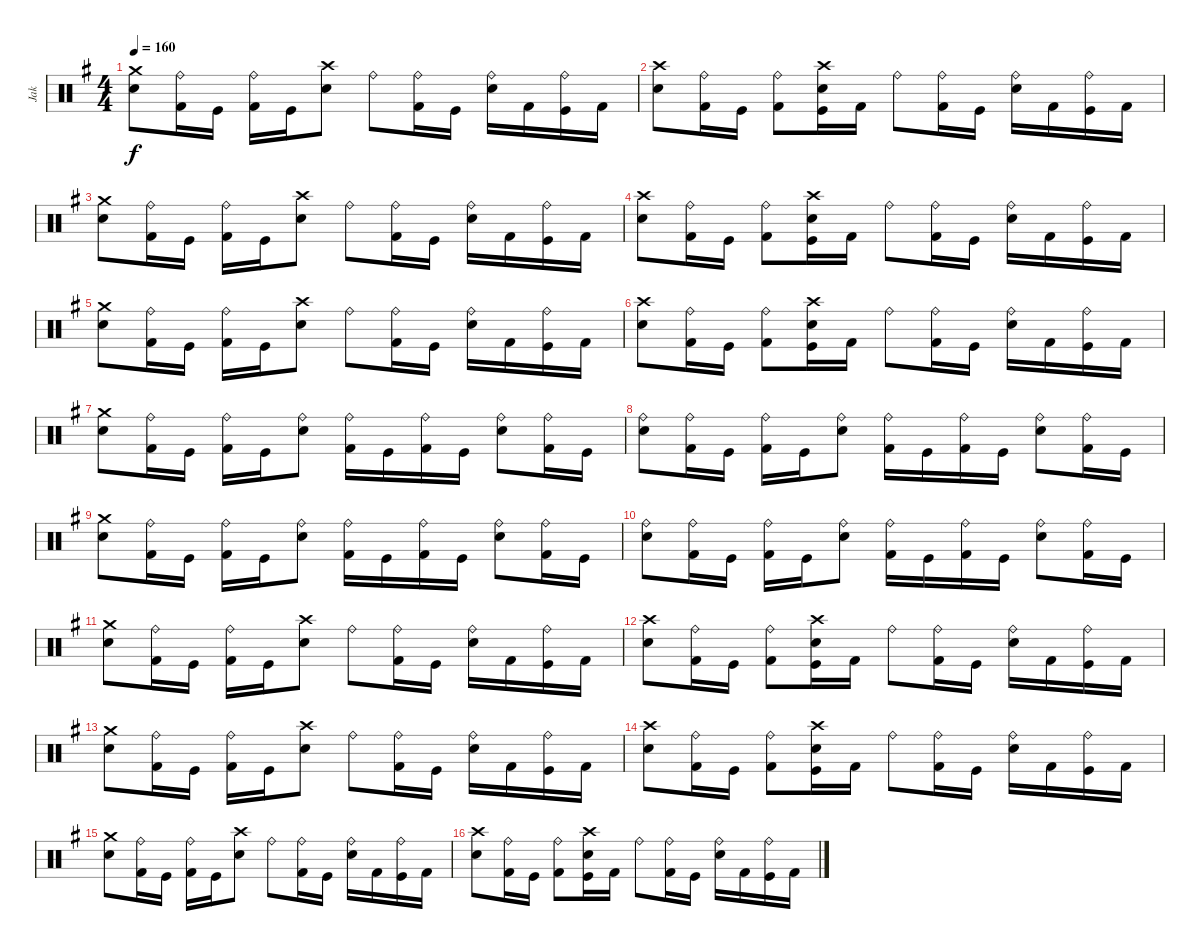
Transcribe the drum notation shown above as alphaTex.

\track ("Jak" "Jak") {instrument percussion}
\staff {score}
\articulation defaults
\ts (4 4)
\tempo 160
\clef neutral
\ks eminor
("Crash medium (hit)" "Snare (hit) 2").8{dy f} ("Ride (bell)" "Kick (hit) 2").16 "Kick (hit)".16 ("Ride (bell)" "Kick (hit) 2").16 "Kick (hit)".16 ("Crash high (hit)" "Snare (hit) 2").8 "Ride (bell)".8 ("Ride (bell)" "Kick (hit) 2").16 "Kick (hit)".16 ("Ride (bell)" "Snare (hit) 2").16 "Kick (hit) 2".16 ("Ride (bell)" "Kick (hit)").16 "Kick (hit) 2".16 |
("Crash high (hit)" "Snare (hit) 2").8 ("Ride (bell)" "Kick (hit) 2").16 "Kick (hit)".16 ("Ride (bell)" "Kick (hit) 2").8 ("Crash high (hit)" "Snare (hit) 2" "Kick (hit)").16 "Kick (hit) 2".16 "Ride (bell)".8 ("Ride (bell)" "Kick (hit) 2").16 "Kick (hit)".16 ("Ride (bell)" "Snare (hit) 2").16 "Kick (hit) 2".16 ("Ride (bell)" "Kick (hit)").16 "Kick (hit) 2".16 |
("Crash medium (hit)" "Snare (hit) 2").8 ("Ride (bell)" "Kick (hit) 2").16 "Kick (hit)".16 ("Ride (bell)" "Kick (hit) 2").16 "Kick (hit)".16 ("Crash high (hit)" "Snare (hit) 2").8 "Ride (bell)".8 ("Ride (bell)" "Kick (hit) 2").16 "Kick (hit)".16 ("Ride (bell)" "Snare (hit) 2").16 "Kick (hit) 2".16 ("Ride (bell)" "Kick (hit)").16 "Kick (hit) 2".16 |
("Crash high (hit)" "Snare (hit) 2").8 ("Ride (bell)" "Kick (hit) 2").16 "Kick (hit)".16 ("Ride (bell)" "Kick (hit) 2").8 ("Crash high (hit)" "Snare (hit) 2" "Kick (hit)").16 "Kick (hit) 2".16 "Ride (bell)".8 ("Ride (bell)" "Kick (hit) 2").16 "Kick (hit)".16 ("Ride (bell)" "Snare (hit) 2").16 "Kick (hit) 2".16 ("Ride (bell)" "Kick (hit)").16 "Kick (hit) 2".16 |
("Crash medium (hit)" "Snare (hit) 2").8 ("Ride (bell)" "Kick (hit) 2").16 "Kick (hit)".16 ("Ride (bell)" "Kick (hit) 2").16 "Kick (hit)".16 ("Crash high (hit)" "Snare (hit) 2").8 "Ride (bell)".8 ("Ride (bell)" "Kick (hit) 2").16 "Kick (hit)".16 ("Ride (bell)" "Snare (hit) 2").16 "Kick (hit) 2".16 ("Ride (bell)" "Kick (hit)").16 "Kick (hit) 2".16 |
("Crash high (hit)" "Snare (hit) 2").8 ("Ride (bell)" "Kick (hit) 2").16 "Kick (hit)".16 ("Ride (bell)" "Kick (hit) 2").8 ("Crash high (hit)" "Snare (hit) 2" "Kick (hit)").16 "Kick (hit) 2".16 "Ride (bell)".8 ("Ride (bell)" "Kick (hit) 2").16 "Kick (hit)".16 ("Ride (bell)" "Snare (hit) 2").16 "Kick (hit) 2".16 ("Ride (bell)" "Kick (hit)").16 "Kick (hit) 2".16 |
("Crash medium (hit)" "Snare (hit) 2").8 ("Ride (bell)" "Kick (hit) 2").16 "Kick (hit)".16 ("Ride (bell)" "Kick (hit) 2").16 "Kick (hit)".16 ("Ride (bell)" "Snare (hit) 2").8 ("Ride (bell)" "Kick (hit) 2").16 "Kick (hit)".16 ("Ride (bell)" "Kick (hit) 2").16 "Kick (hit)".16 ("Ride (bell)" "Snare (hit) 2").8 ("Ride (bell)" "Kick (hit) 2").16 "Kick (hit)".16 |
("Ride (bell)" "Snare (hit) 2").8 ("Ride (bell)" "Kick (hit) 2").16 "Kick (hit)".16 ("Ride (bell)" "Kick (hit) 2").16 "Kick (hit)".16 ("Ride (bell)" "Snare (hit) 2").8 ("Ride (bell)" "Kick (hit) 2").16 "Kick (hit)".16 ("Ride (bell)" "Kick (hit) 2").16 "Kick (hit)".16 ("Ride (bell)" "Snare (hit) 2").8 ("Ride (bell)" "Kick (hit) 2").16 "Kick (hit)".16 |
("Crash medium (hit)" "Snare (hit) 2").8 ("Ride (bell)" "Kick (hit) 2").16 "Kick (hit)".16 ("Ride (bell)" "Kick (hit) 2").16 "Kick (hit)".16 ("Ride (bell)" "Snare (hit) 2").8 ("Ride (bell)" "Kick (hit) 2").16 "Kick (hit)".16 ("Ride (bell)" "Kick (hit) 2").16 "Kick (hit)".16 ("Ride (bell)" "Snare (hit) 2").8 ("Ride (bell)" "Kick (hit) 2").16 "Kick (hit)".16 |
("Ride (bell)" "Snare (hit) 2").8 ("Ride (bell)" "Kick (hit) 2").16 "Kick (hit)".16 ("Ride (bell)" "Kick (hit) 2").16 "Kick (hit)".16 ("Ride (bell)" "Snare (hit) 2").8 ("Ride (bell)" "Kick (hit) 2").16 "Kick (hit)".16 ("Ride (bell)" "Kick (hit) 2").16 "Kick (hit)".16 ("Ride (bell)" "Snare (hit) 2").8 ("Ride (bell)" "Kick (hit) 2").16 "Kick (hit)".16 |
("Crash medium (hit)" "Snare (hit) 2").8 ("Ride (bell)" "Kick (hit) 2").16 "Kick (hit)".16 ("Ride (bell)" "Kick (hit) 2").16 "Kick (hit)".16 ("Crash high (hit)" "Snare (hit) 2").8 "Ride (bell)".8 ("Ride (bell)" "Kick (hit) 2").16 "Kick (hit)".16 ("Ride (bell)" "Snare (hit) 2").16 "Kick (hit) 2".16 ("Ride (bell)" "Kick (hit)").16 "Kick (hit) 2".16 |
("Crash high (hit)" "Snare (hit) 2").8 ("Ride (bell)" "Kick (hit) 2").16 "Kick (hit)".16 ("Ride (bell)" "Kick (hit) 2").8 ("Crash high (hit)" "Snare (hit) 2" "Kick (hit)").16 "Kick (hit) 2".16 "Ride (bell)".8 ("Ride (bell)" "Kick (hit) 2").16 "Kick (hit)".16 ("Ride (bell)" "Snare (hit) 2").16 "Kick (hit) 2".16 ("Ride (bell)" "Kick (hit)").16 "Kick (hit) 2".16 |
("Crash medium (hit)" "Snare (hit) 2").8 ("Ride (bell)" "Kick (hit) 2").16 "Kick (hit)".16 ("Ride (bell)" "Kick (hit) 2").16 "Kick (hit)".16 ("Crash high (hit)" "Snare (hit) 2").8 "Ride (bell)".8 ("Ride (bell)" "Kick (hit) 2").16 "Kick (hit)".16 ("Ride (bell)" "Snare (hit) 2").16 "Kick (hit) 2".16 ("Ride (bell)" "Kick (hit)").16 "Kick (hit) 2".16 |
("Crash high (hit)" "Snare (hit) 2").8 ("Ride (bell)" "Kick (hit) 2").16 "Kick (hit)".16 ("Ride (bell)" "Kick (hit) 2").8 ("Crash high (hit)" "Snare (hit) 2" "Kick (hit)").16 "Kick (hit) 2".16 "Ride (bell)".8 ("Ride (bell)" "Kick (hit) 2").16 "Kick (hit)".16 ("Ride (bell)" "Snare (hit) 2").16 "Kick (hit) 2".16 ("Ride (bell)" "Kick (hit)").16 "Kick (hit) 2".16 |
("Crash medium (hit)" "Snare (hit) 2").8 ("Ride (bell)" "Kick (hit) 2").16 "Kick (hit)".16 ("Ride (bell)" "Kick (hit) 2").16 "Kick (hit)".16 ("Crash high (hit)" "Snare (hit) 2").8 "Ride (bell)".8 ("Ride (bell)" "Kick (hit) 2").16 "Kick (hit)".16 ("Ride (bell)" "Snare (hit) 2").16 "Kick (hit) 2".16 ("Ride (bell)" "Kick (hit)").16 "Kick (hit) 2".16 |
("Crash high (hit)" "Snare (hit) 2").8 ("Ride (bell)" "Kick (hit) 2").16 "Kick (hit)".16 ("Ride (bell)" "Kick (hit) 2").8 ("Crash high (hit)" "Snare (hit) 2" "Kick (hit)").16 "Kick (hit) 2".16 "Ride (bell)".8 ("Ride (bell)" "Kick (hit) 2").16 "Kick (hit)".16 ("Ride (bell)" "Snare (hit) 2").16 "Kick (hit) 2".16 ("Ride (bell)" "Kick (hit)").16 "Kick (hit) 2".16
